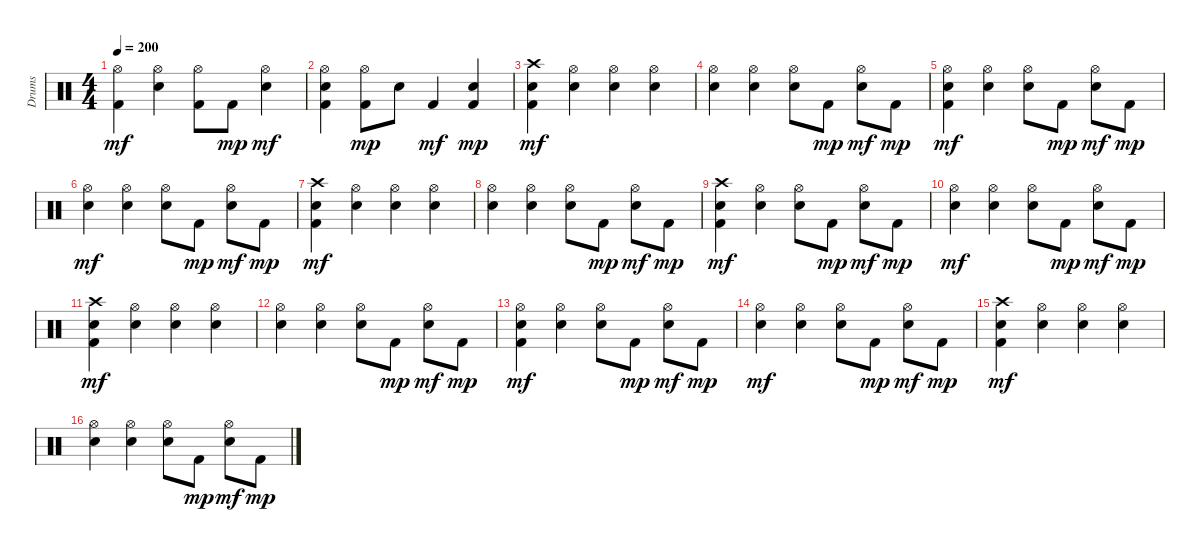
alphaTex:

\track ("Drums" "Drums") {instrument percussion}
\staff {score}
\articulation defaults
\ts (4 4)
\tempo 200
\clef neutral
\ks c
("Hi-Hat (open)" "Kick (hit) 2").4{dy mf} ("Snare (hit) 2" "Hi-Hat (open)").4 ("Hi-Hat (open)" "Kick (hit) 2").8 "Kick (hit) 2".8{dy mp} ("Snare (hit) 2" "Hi-Hat (open)").4{dy mf} |
("Snare (hit) 2" "Hi-Hat (open)" "Kick (hit) 2").4 ("Hi-Hat (open)" "Kick (hit) 2").8{dy mp} "Snare (hit) 2".8 "Kick (hit) 2".4{dy mf} ("Snare (hit) 2" "Kick (hit) 2").4{dy mp} |
("Snare (hit) 2" "Crash high (hit)" "Kick (hit) 2").4{dy mf} ("Snare (hit) 2" "Hi-Hat (open)").4 ("Snare (hit) 2" "Hi-Hat (open)").4 ("Snare (hit) 2" "Hi-Hat (open)").4 |
("Snare (hit) 2" "Hi-Hat (open)").4 ("Snare (hit) 2" "Hi-Hat (open)").4 ("Snare (hit) 2" "Hi-Hat (open)").8 "Kick (hit) 2".8{dy mp} ("Snare (hit) 2" "Hi-Hat (open)").8{dy mf} "Kick (hit) 2".8{dy mp} |
("Snare (hit) 2" "Hi-Hat (open)" "Kick (hit) 2").4{dy mf} ("Snare (hit) 2" "Hi-Hat (open)").4 ("Snare (hit) 2" "Hi-Hat (open)").8 "Kick (hit) 2".8{dy mp} ("Snare (hit) 2" "Hi-Hat (open)").8{dy mf} "Kick (hit) 2".8{dy mp} |
("Snare (hit) 2" "Hi-Hat (open)").4{dy mf} ("Snare (hit) 2" "Hi-Hat (open)").4 ("Snare (hit) 2" "Hi-Hat (open)").8 "Kick (hit) 2".8{dy mp} ("Snare (hit) 2" "Hi-Hat (open)").8{dy mf} "Kick (hit) 2".8{dy mp} |
("Snare (hit) 2" "Crash high (hit)" "Kick (hit) 2").4{dy mf} ("Snare (hit) 2" "Hi-Hat (open)").4 ("Snare (hit) 2" "Hi-Hat (open)").4 ("Snare (hit) 2" "Hi-Hat (open)").4 |
("Snare (hit) 2" "Hi-Hat (open)").4 ("Snare (hit) 2" "Hi-Hat (open)").4 ("Snare (hit) 2" "Hi-Hat (open)").8 "Kick (hit) 2".8{dy mp} ("Snare (hit) 2" "Hi-Hat (open)").8{dy mf} "Kick (hit) 2".8{dy mp} |
("Snare (hit) 2" "Crash high (hit)" "Kick (hit) 2").4{dy mf} ("Snare (hit) 2" "Hi-Hat (open)").4 ("Snare (hit) 2" "Hi-Hat (open)").8 "Kick (hit) 2".8{dy mp} ("Snare (hit) 2" "Hi-Hat (open)").8{dy mf} "Kick (hit) 2".8{dy mp} |
("Snare (hit) 2" "Hi-Hat (open)").4{dy mf} ("Snare (hit) 2" "Hi-Hat (open)").4 ("Snare (hit) 2" "Hi-Hat (open)").8 "Kick (hit) 2".8{dy mp} ("Snare (hit) 2" "Hi-Hat (open)").8{dy mf} "Kick (hit) 2".8{dy mp} |
("Snare (hit) 2" "Crash high (hit)" "Kick (hit) 2").4{dy mf} ("Snare (hit) 2" "Hi-Hat (open)").4 ("Snare (hit) 2" "Hi-Hat (open)").4 ("Snare (hit) 2" "Hi-Hat (open)").4 |
("Snare (hit) 2" "Hi-Hat (open)").4 ("Snare (hit) 2" "Hi-Hat (open)").4 ("Snare (hit) 2" "Hi-Hat (open)").8 "Kick (hit) 2".8{dy mp} ("Snare (hit) 2" "Hi-Hat (open)").8{dy mf} "Kick (hit) 2".8{dy mp} |
("Snare (hit) 2" "Hi-Hat (open)" "Kick (hit) 2").4{dy mf} ("Snare (hit) 2" "Hi-Hat (open)").4 ("Snare (hit) 2" "Hi-Hat (open)").8 "Kick (hit) 2".8{dy mp} ("Snare (hit) 2" "Hi-Hat (open)").8{dy mf} "Kick (hit) 2".8{dy mp} |
("Snare (hit) 2" "Hi-Hat (open)").4{dy mf} ("Snare (hit) 2" "Hi-Hat (open)").4 ("Snare (hit) 2" "Hi-Hat (open)").8 "Kick (hit) 2".8{dy mp} ("Snare (hit) 2" "Hi-Hat (open)").8{dy mf} "Kick (hit) 2".8{dy mp} |
("Snare (hit) 2" "Crash high (hit)" "Kick (hit) 2").4{dy mf} ("Snare (hit) 2" "Hi-Hat (open)").4 ("Snare (hit) 2" "Hi-Hat (open)").4 ("Snare (hit) 2" "Hi-Hat (open)").4 |
("Snare (hit) 2" "Hi-Hat (open)").4 ("Snare (hit) 2" "Hi-Hat (open)").4 ("Snare (hit) 2" "Hi-Hat (open)").8 "Kick (hit) 2".8{dy mp} ("Snare (hit) 2" "Hi-Hat (open)").8{dy mf} "Kick (hit) 2".8{dy mp}
